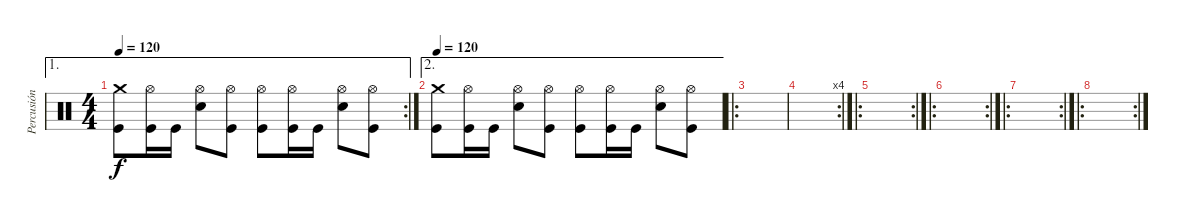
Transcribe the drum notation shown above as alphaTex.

\track ("Percusión" "Percusión") {instrument percussion}
\staff {score}
\articulation defaults
\ae 1
\rc 2
\ts (4 4)
\tempo 120
\clef neutral
\ks c
("Crash medium (hit)" "Kick (hit)").8{dy f} ("Hi-Hat (open)" "Kick (hit)").16 "Kick (hit)".16 ("Hi-Hat (open)" "Electric Snare (hit)").8 ("Hi-Hat (open)" "Kick (hit)").8 ("Hi-Hat (open)" "Kick (hit)").8 ("Hi-Hat (open)" "Kick (hit)").16 "Kick (hit)".16 ("Hi-Hat (open)" "Electric Snare (hit)").8 ("Hi-Hat (open)" "Kick (hit)").8 |
\ae 2
\tempo 120
("Crash medium (hit)" "Kick (hit)").8 ("Hi-Hat (open)" "Kick (hit)").16 "Kick (hit)".16 ("Hi-Hat (open)" "Electric Snare (hit)").8 ("Hi-Hat (open)" "Kick (hit)").8 ("Hi-Hat (open)" "Kick (hit)").8 ("Hi-Hat (open)" "Kick (hit)").16 "Kick (hit)".16 ("Hi-Hat (open)" "Electric Snare (hit)").8 ("Hi-Hat (open)" "Kick (hit)").8 |
\ro
|
\rc 4
|
\ro
\rc 2
|
\ro
\rc 2
|
\ro
\rc 2
|
\ro
\rc 2
